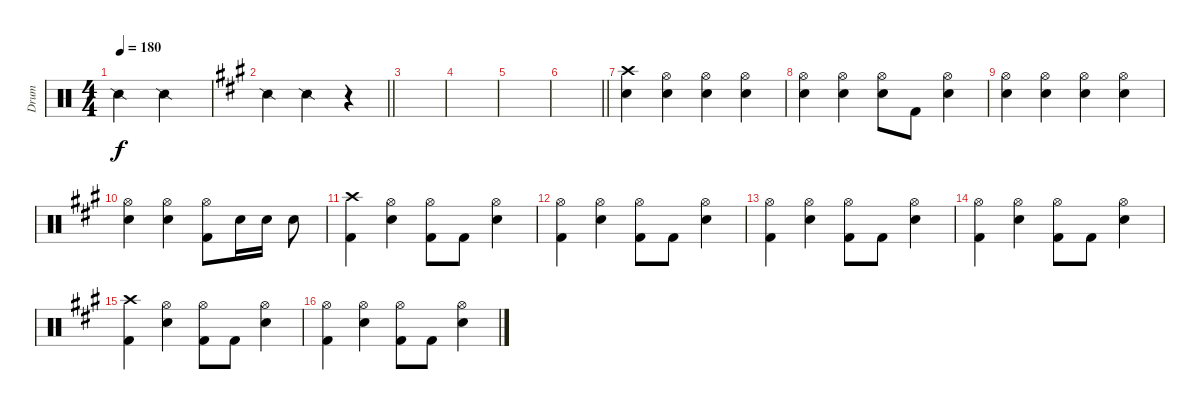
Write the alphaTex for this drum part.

\track ("Drum" "Drum") {instrument percussion}
\staff {score}
\articulation defaults
\ts (4 4)
\tempo 180
\clef neutral
\ks c "Snare (side stick) 2".2{dy f} "Snare (side stick) 2".2
|
\barLineRight lightlight
\ks a "Snare (side stick) 2".4 "Snare (side stick) 2".4
r.4 |
|
|
|
\barLineRight lightlight
|
("Crash high (hit)" "Snare (hit) 2").4 ("Hi-Hat (open)" "Snare (hit) 2").4 ("Hi-Hat (open)" "Snare (hit) 2").4 ("Hi-Hat (open)" "Snare (hit) 2").4 |
("Hi-Hat (open)" "Snare (hit) 2").4 ("Hi-Hat (open)" "Snare (hit) 2").4 ("Hi-Hat (open)" "Snare (hit) 2").8 "Kick (hit) 2".8 ("Hi-Hat (open)" "Snare (hit) 2").4 |
("Hi-Hat (open)" "Snare (hit) 2").4 ("Hi-Hat (open)" "Snare (hit) 2").4 ("Hi-Hat (open)" "Snare (hit) 2").4 ("Hi-Hat (open)" "Snare (hit) 2").4 |
("Hi-Hat (open)" "Snare (hit) 2").4 ("Hi-Hat (open)" "Snare (hit) 2").4 ("Hi-Hat (open)" "Kick (hit) 2").8 "Snare (hit) 2".16 "Snare (hit) 2".16 "Snare (hit) 2".8 |
("Crash high (hit)" "Kick (hit) 2").4 ("Hi-Hat (open)" "Snare (hit) 2").4 ("Hi-Hat (open)" "Kick (hit) 2").8 "Kick (hit) 2".8 ("Hi-Hat (open)" "Snare (hit) 2").4 |
("Hi-Hat (open)" "Kick (hit) 2").4 ("Hi-Hat (open)" "Snare (hit) 2").4 ("Hi-Hat (open)" "Kick (hit) 2").8 "Kick (hit) 2".8 ("Hi-Hat (open)" "Snare (hit) 2").4 |
("Hi-Hat (open)" "Kick (hit) 2").4 ("Hi-Hat (open)" "Snare (hit) 2").4 ("Hi-Hat (open)" "Kick (hit) 2").8 "Kick (hit) 2".8 ("Hi-Hat (open)" "Snare (hit) 2").4 |
("Hi-Hat (open)" "Kick (hit) 2").4 ("Hi-Hat (open)" "Snare (hit) 2").4 ("Hi-Hat (open)" "Kick (hit) 2").8 "Kick (hit) 2".8 ("Hi-Hat (open)" "Snare (hit) 2").4 |
("Crash high (hit)" "Kick (hit) 2").4 ("Hi-Hat (open)" "Snare (hit) 2").4 ("Hi-Hat (open)" "Kick (hit) 2").8 "Kick (hit) 2".8 ("Hi-Hat (open)" "Snare (hit) 2").4 |
("Hi-Hat (open)" "Kick (hit) 2").4 ("Hi-Hat (open)" "Snare (hit) 2").4 ("Hi-Hat (open)" "Kick (hit) 2").8 "Kick (hit) 2".8 ("Hi-Hat (open)" "Snare (hit) 2").4
